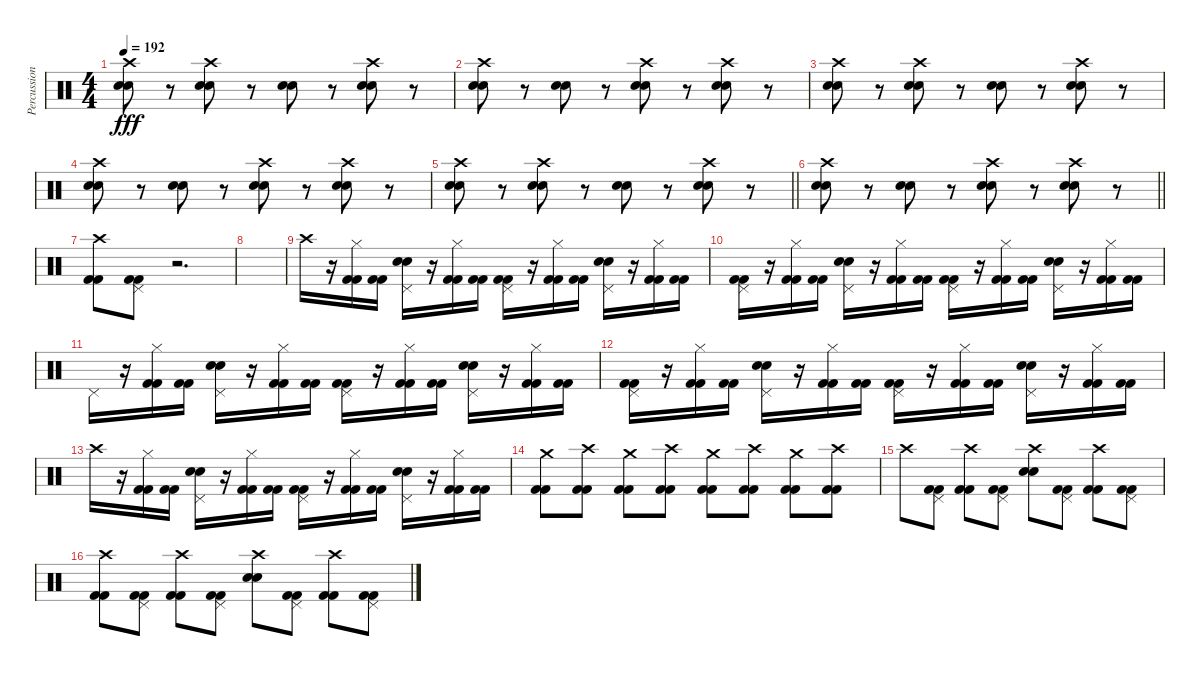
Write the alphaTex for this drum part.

\track ("Percussion" "Percussion") {instrument percussion}
\staff {score}
\articulation defaults
\ts (4 4)
\tempo 192
\clef neutral
\ks c
("Crash high (hit)" "Snare (hit) 2" "Electric Snare (hit)").8{dy fff} r.8 ("Crash high (hit)" "Snare (hit) 2" "Electric Snare (hit)").8 r.8 ("Snare (hit) 2" "Electric Snare (hit)").8 r.8 ("Crash high (hit)" "Snare (hit) 2" "Electric Snare (hit)").8 r.8 |
("Crash high (hit)" "Snare (hit) 2" "Electric Snare (hit)").8 r.8 ("Snare (hit) 2" "Electric Snare (hit)").8 r.8 ("Crash high (hit)" "Snare (hit) 2" "Electric Snare (hit)").8 r.8 ("Crash high (hit)" "Snare (hit) 2" "Electric Snare (hit)").8 r.8 |
("Crash high (hit)" "Snare (hit) 2" "Electric Snare (hit)").8 r.8 ("Crash high (hit)" "Snare (hit) 2" "Electric Snare (hit)").8 r.8 ("Snare (hit) 2" "Electric Snare (hit)").8 r.8 ("Crash high (hit)" "Snare (hit) 2" "Electric Snare (hit)").8 r.8 |
("Crash high (hit)" "Snare (hit) 2" "Electric Snare (hit)").8 r.8 ("Snare (hit) 2" "Electric Snare (hit)").8 r.8 ("Crash high (hit)" "Snare (hit) 2" "Electric Snare (hit)").8 r.8 ("Crash high (hit)" "Snare (hit) 2" "Electric Snare (hit)").8 r.8 |
\barLineRight lightlight
("Crash high (hit)" "Snare (hit) 2" "Electric Snare (hit)").8 r.8 ("Crash high (hit)" "Snare (hit) 2" "Electric Snare (hit)").8 r.8 ("Snare (hit) 2" "Electric Snare (hit)").8 r.8 ("Crash high (hit)" "Snare (hit) 2" "Electric Snare (hit)").8 r.8 |
\barLineRight lightlight
("Crash high (hit)" "Snare (hit) 2" "Electric Snare (hit)").8 r.8 ("Snare (hit) 2" "Electric Snare (hit)").8 r.8 ("Crash high (hit)" "Snare (hit) 2" "Electric Snare (hit)").8 r.8 ("Crash high (hit)" "Snare (hit) 2" "Electric Snare (hit)").8 r.8 |
("Crash high (hit)" "Kick (hit) 2" "Kick (hit) 2").8 ("Pedal Hi-Hat (hit)" "Kick (hit) 2" "Kick (hit) 2").8 r.2{d} |
|
"Crash high (hit)".16 r.16 ("Hi-Hat (closed)" "Kick (hit) 2" "Kick (hit) 2").16 ("Kick (hit) 2" "Kick (hit) 2").16 ("Pedal Hi-Hat (hit)" "Snare (hit) 2" "Electric Snare (hit)").16 r.16 ("Hi-Hat (closed)" "Kick (hit) 2" "Kick (hit) 2").16 ("Kick (hit) 2" "Kick (hit) 2").16 ("Pedal Hi-Hat (hit)" "Kick (hit) 2" "Kick (hit) 2").16 r.16 ("Hi-Hat (closed)" "Kick (hit) 2" "Kick (hit) 2").16 ("Kick (hit) 2" "Kick (hit) 2").16 ("Pedal Hi-Hat (hit)" "Snare (hit) 2" "Electric Snare (hit)").16 r.16 ("Hi-Hat (closed)" "Kick (hit) 2" "Kick (hit) 2").16 ("Kick (hit) 2" "Kick (hit) 2").16 |
("Pedal Hi-Hat (hit)" "Kick (hit) 2" "Kick (hit) 2").16 r.16 ("Hi-Hat (closed)" "Kick (hit) 2" "Kick (hit) 2").16 ("Kick (hit) 2" "Kick (hit) 2").16 ("Pedal Hi-Hat (hit)" "Snare (hit) 2" "Electric Snare (hit)").16 r.16 ("Hi-Hat (closed)" "Kick (hit) 2" "Kick (hit) 2").16 ("Kick (hit) 2" "Kick (hit) 2").16 ("Pedal Hi-Hat (hit)" "Kick (hit) 2" "Kick (hit) 2").16 r.16 ("Hi-Hat (closed)" "Kick (hit) 2" "Kick (hit) 2").16 ("Kick (hit) 2" "Kick (hit) 2").16 ("Pedal Hi-Hat (hit)" "Snare (hit) 2" "Electric Snare (hit)").16 r.16 ("Hi-Hat (closed)" "Kick (hit) 2" "Kick (hit) 2").16 ("Kick (hit) 2" "Kick (hit) 2").16 |
"Pedal Hi-Hat (hit)".16 r.16 ("Hi-Hat (closed)" "Kick (hit) 2" "Kick (hit) 2").16 ("Kick (hit) 2" "Kick (hit) 2").16 ("Pedal Hi-Hat (hit)" "Snare (hit) 2" "Electric Snare (hit)").16 r.16 ("Hi-Hat (closed)" "Kick (hit) 2" "Kick (hit) 2").16 ("Kick (hit) 2" "Kick (hit) 2").16 ("Pedal Hi-Hat (hit)" "Kick (hit) 2" "Kick (hit) 2").16 r.16 ("Hi-Hat (closed)" "Kick (hit) 2" "Kick (hit) 2").16 ("Kick (hit) 2" "Kick (hit) 2").16 ("Pedal Hi-Hat (hit)" "Snare (hit) 2" "Electric Snare (hit)").16 r.16 ("Hi-Hat (closed)" "Kick (hit) 2" "Kick (hit) 2").16 ("Kick (hit) 2" "Kick (hit) 2").16 |
("Pedal Hi-Hat (hit)" "Kick (hit) 2" "Kick (hit) 2").16 r.16 ("Hi-Hat (closed)" "Kick (hit) 2" "Kick (hit) 2").16 ("Kick (hit) 2" "Kick (hit) 2").16 ("Pedal Hi-Hat (hit)" "Snare (hit) 2" "Electric Snare (hit)").16 r.16 ("Hi-Hat (closed)" "Kick (hit) 2" "Kick (hit) 2").16 ("Kick (hit) 2" "Kick (hit) 2").16 ("Pedal Hi-Hat (hit)" "Kick (hit) 2" "Kick (hit) 2").16 r.16 ("Hi-Hat (closed)" "Kick (hit) 2" "Kick (hit) 2").16 ("Kick (hit) 2" "Kick (hit) 2").16 ("Pedal Hi-Hat (hit)" "Snare (hit) 2" "Electric Snare (hit)").16 r.16 ("Hi-Hat (closed)" "Kick (hit) 2" "Kick (hit) 2").16 ("Kick (hit) 2" "Kick (hit) 2").16 |
"Crash high (hit)".16 r.16 ("Hi-Hat (closed)" "Kick (hit) 2" "Kick (hit) 2").16 ("Kick (hit) 2" "Kick (hit) 2").16 ("Pedal Hi-Hat (hit)" "Snare (hit) 2" "Electric Snare (hit)").16 r.16 ("Hi-Hat (closed)" "Kick (hit) 2" "Kick (hit) 2").16 ("Kick (hit) 2" "Kick (hit) 2").16 ("Pedal Hi-Hat (hit)" "Kick (hit) 2" "Kick (hit) 2").16 r.16 ("Hi-Hat (closed)" "Kick (hit) 2" "Kick (hit) 2").16 ("Kick (hit) 2" "Kick (hit) 2").16 ("Pedal Hi-Hat (hit)" "Snare (hit) 2" "Electric Snare (hit)").16 r.16 ("Hi-Hat (closed)" "Kick (hit) 2" "Kick (hit) 2").16 ("Kick (hit) 2" "Kick (hit) 2").16 |
("Crash medium (hit)" "Kick (hit) 2" "Kick (hit) 2").8 ("Crash high (hit)" "Kick (hit) 2" "Kick (hit) 2").8 ("Crash medium (hit)" "Kick (hit) 2" "Kick (hit) 2").8 ("Crash high (hit)" "Kick (hit) 2" "Kick (hit) 2").8 ("Crash medium (hit)" "Kick (hit) 2" "Kick (hit) 2").8 ("Crash high (hit)" "Kick (hit) 2" "Kick (hit) 2").8 ("Crash medium (hit)" "Kick (hit) 2" "Kick (hit) 2").8 ("Crash high (hit)" "Kick (hit) 2" "Kick (hit) 2").8 |
"Crash high (hit)".8 ("Pedal Hi-Hat (hit)" "Kick (hit) 2" "Kick (hit) 2").8 ("Crash high (hit)" "Kick (hit) 2" "Kick (hit) 2").8 ("Pedal Hi-Hat (hit)" "Kick (hit) 2" "Kick (hit) 2").8 ("Crash high (hit)" "Snare (hit) 2" "Electric Snare (hit)").8 ("Pedal Hi-Hat (hit)" "Kick (hit) 2" "Kick (hit) 2").8 ("Crash high (hit)" "Kick (hit) 2" "Kick (hit) 2").8 ("Pedal Hi-Hat (hit)" "Kick (hit) 2" "Kick (hit) 2").8 |
("Crash high (hit)" "Kick (hit) 2" "Kick (hit) 2").8 ("Pedal Hi-Hat (hit)" "Kick (hit) 2" "Kick (hit) 2").8 ("Crash high (hit)" "Kick (hit) 2" "Kick (hit) 2").8 ("Pedal Hi-Hat (hit)" "Kick (hit) 2" "Kick (hit) 2").8 ("Crash high (hit)" "Snare (hit) 2" "Electric Snare (hit)").8 ("Pedal Hi-Hat (hit)" "Kick (hit) 2" "Kick (hit) 2").8 ("Crash high (hit)" "Kick (hit) 2" "Kick (hit) 2").8 ("Pedal Hi-Hat (hit)" "Kick (hit) 2" "Kick (hit) 2").8
